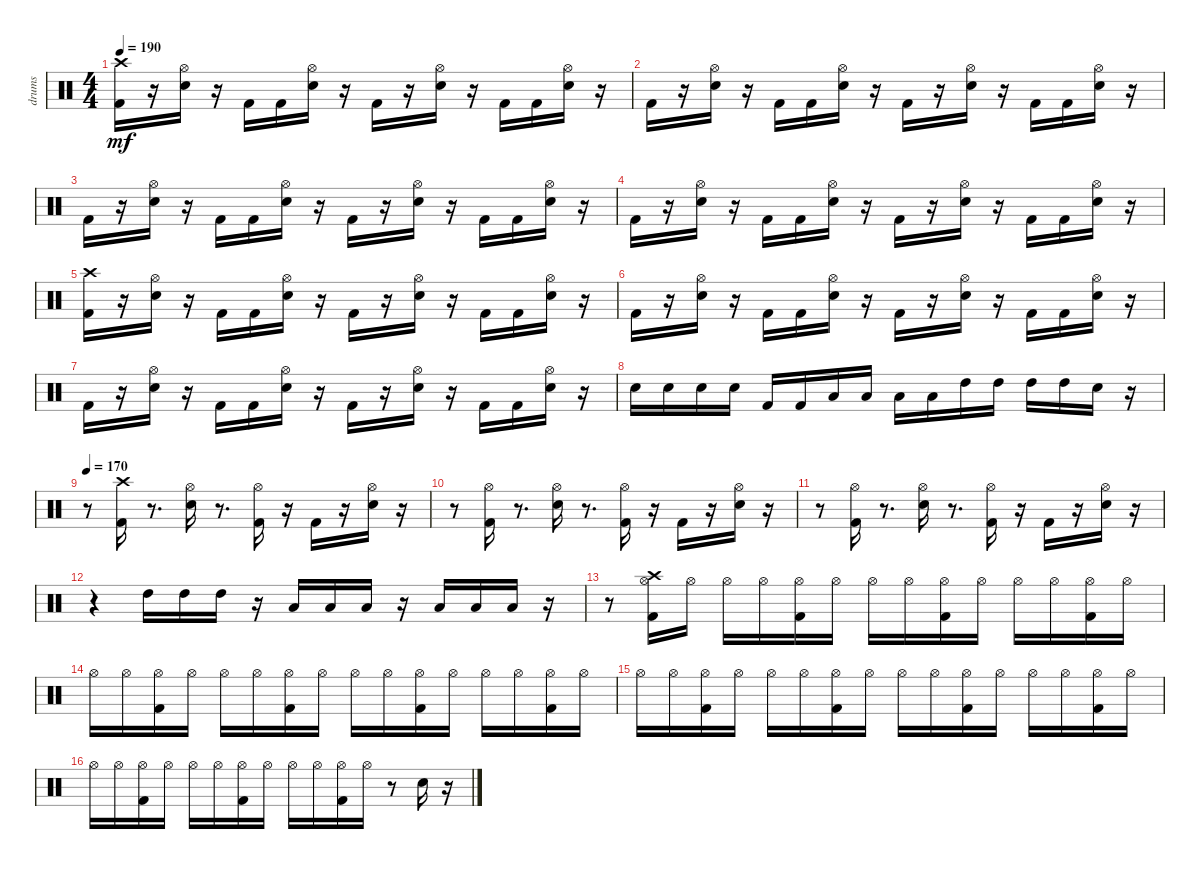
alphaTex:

\track ("drums               " "drums     ") {instrument percussion}
\staff {score}
\articulation defaults
\ts (4 4)
\tempo 190
\clef neutral
\ks c
("Kick (hit) 2" "Crash high (hit)").16{dy mf} r.16 ("Snare (hit) 2" "Hi-Hat (open)").16 r.16 "Kick (hit) 2".16 "Kick (hit) 2".16 ("Snare (hit) 2" "Hi-Hat (open)").16 r.16 "Kick (hit) 2".16 r.16 ("Snare (hit) 2" "Hi-Hat (open)").16 r.16 "Kick (hit) 2".16 "Kick (hit) 2".16 ("Snare (hit) 2" "Hi-Hat (open)").16 r.16 |
"Kick (hit) 2".16 r.16 ("Snare (hit) 2" "Hi-Hat (open)").16 r.16 "Kick (hit) 2".16 "Kick (hit) 2".16 ("Snare (hit) 2" "Hi-Hat (open)").16 r.16 "Kick (hit) 2".16 r.16 ("Snare (hit) 2" "Hi-Hat (open)").16 r.16 "Kick (hit) 2".16 "Kick (hit) 2".16 ("Snare (hit) 2" "Hi-Hat (open)").16 r.16 |
"Kick (hit) 2".16 r.16 ("Snare (hit) 2" "Hi-Hat (open)").16 r.16 "Kick (hit) 2".16 "Kick (hit) 2".16 ("Snare (hit) 2" "Hi-Hat (open)").16 r.16 "Kick (hit) 2".16 r.16 ("Snare (hit) 2" "Hi-Hat (open)").16 r.16 "Kick (hit) 2".16 "Kick (hit) 2".16 ("Snare (hit) 2" "Hi-Hat (open)").16 r.16 |
"Kick (hit) 2".16 r.16 ("Snare (hit) 2" "Hi-Hat (open)").16 r.16 "Kick (hit) 2".16 "Kick (hit) 2".16 ("Snare (hit) 2" "Hi-Hat (open)").16 r.16 "Kick (hit) 2".16 r.16 ("Snare (hit) 2" "Hi-Hat (open)").16 r.16 "Kick (hit) 2".16 "Kick (hit) 2".16 ("Snare (hit) 2" "Hi-Hat (open)").16 r.16 |
("Kick (hit) 2" "Crash high (hit)").16 r.16 ("Snare (hit) 2" "Hi-Hat (open)").16 r.16 "Kick (hit) 2".16 "Kick (hit) 2".16 ("Snare (hit) 2" "Hi-Hat (open)").16 r.16 "Kick (hit) 2".16 r.16 ("Snare (hit) 2" "Hi-Hat (open)").16 r.16 "Kick (hit) 2".16 "Kick (hit) 2".16 ("Snare (hit) 2" "Hi-Hat (open)").16 r.16 |
"Kick (hit) 2".16 r.16 ("Snare (hit) 2" "Hi-Hat (open)").16 r.16 "Kick (hit) 2".16 "Kick (hit) 2".16 ("Snare (hit) 2" "Hi-Hat (open)").16 r.16 "Kick (hit) 2".16 r.16 ("Snare (hit) 2" "Hi-Hat (open)").16 r.16 "Kick (hit) 2".16 "Kick (hit) 2".16 ("Snare (hit) 2" "Hi-Hat (open)").16 r.16 |
"Kick (hit) 2".16 r.16 ("Snare (hit) 2" "Hi-Hat (open)").16 r.16 "Kick (hit) 2".16 "Kick (hit) 2".16 ("Snare (hit) 2" "Hi-Hat (open)").16 r.16 "Kick (hit) 2".16 r.16 ("Snare (hit) 2" "Hi-Hat (open)").16 r.16 "Kick (hit) 2".16 "Kick (hit) 2".16 ("Snare (hit) 2" "Hi-Hat (open)").16 r.16 |
"Snare (hit) 2".16 "Snare (hit) 2".16 "Snare (hit) 2".16 "Snare (hit) 2".16 "Kick (hit) 2".16 "Kick (hit) 2".16 "Low Floor Tom (hit)".16 "Low Floor Tom (hit)".16 "Low Tom (hit)".16 "Low Tom (hit)".16 "High Tom (hit)".16 "High Tom (hit)".16 "High Tom (hit)".16 "High Tom (hit)".16 "Snare (hit) 2".16 r.16 |
\tempo 170
r.8 ("Crash high (hit)" "Kick (hit) 2").16 r.8{d} ("Hi-Hat (open)" "Snare (hit) 2").16 r.8{d} ("Hi-Hat (open)" "Kick (hit) 2").16 r.16 "Kick (hit) 2".16 r.16 ("Hi-Hat (open)" "Snare (hit) 2").16 r.16 |
r.8 ("Kick (hit) 2" "Hi-Hat (open)").16 r.8{d} ("Hi-Hat (open)" "Snare (hit) 2").16 r.8{d} ("Hi-Hat (open)" "Kick (hit) 2").16 r.16 "Kick (hit) 2".16 r.16 ("Hi-Hat (open)" "Snare (hit) 2").16 r.16 |
r.8 ("Kick (hit) 2" "Hi-Hat (open)").16 r.8{d} ("Hi-Hat (open)" "Snare (hit) 2").16 r.8{d} ("Hi-Hat (open)" "Kick (hit) 2").16 r.16 "Kick (hit) 2".16 r.16 ("Hi-Hat (open)" "Snare (hit) 2").16 r.16 |
r.4 "High Tom (hit)".16 "High Tom (hit)".16 "High Tom (hit)".16 r.16 "Low Tom (hit)".16 "Low Tom (hit)".16 "Low Tom (hit)".16 r.16 "Low Floor Tom (hit)".16 "Low Floor Tom (hit)".16 "Low Floor Tom (hit)".16 r.16 |
r.8 ("Kick (hit) 2" "Crash high (hit)" "Hi-Hat (open)").16 "Hi-Hat (open)".16 "Hi-Hat (open)".16 "Hi-Hat (open)".16 ("Hi-Hat (open)" "Kick (hit) 2").16 "Hi-Hat (open)".16 "Hi-Hat (open)".16 "Hi-Hat (open)".16 ("Hi-Hat (open)" "Kick (hit) 2").16 "Hi-Hat (open)".16 "Hi-Hat (open)".16 "Hi-Hat (open)".16 ("Hi-Hat (open)" "Kick (hit) 2").16 "Hi-Hat (open)".16 |
"Hi-Hat (open)".16 "Hi-Hat (open)".16 ("Hi-Hat (open)" "Kick (hit) 2").16 "Hi-Hat (open)".16 "Hi-Hat (open)".16 "Hi-Hat (open)".16 ("Hi-Hat (open)" "Kick (hit) 2").16 "Hi-Hat (open)".16 "Hi-Hat (open)".16 "Hi-Hat (open)".16 ("Hi-Hat (open)" "Kick (hit) 2").16 "Hi-Hat (open)".16 "Hi-Hat (open)".16 "Hi-Hat (open)".16 ("Hi-Hat (open)" "Kick (hit) 2").16 "Hi-Hat (open)".16 |
"Hi-Hat (open)".16 "Hi-Hat (open)".16 ("Hi-Hat (open)" "Kick (hit) 2").16 "Hi-Hat (open)".16 "Hi-Hat (open)".16 "Hi-Hat (open)".16 ("Hi-Hat (open)" "Kick (hit) 2").16 "Hi-Hat (open)".16 "Hi-Hat (open)".16 "Hi-Hat (open)".16 ("Hi-Hat (open)" "Kick (hit) 2").16 "Hi-Hat (open)".16 "Hi-Hat (open)".16 "Hi-Hat (open)".16 ("Hi-Hat (open)" "Kick (hit) 2").16 "Hi-Hat (open)".16 |
"Hi-Hat (open)".16 "Hi-Hat (open)".16 ("Hi-Hat (open)" "Kick (hit) 2").16 "Hi-Hat (open)".16 "Hi-Hat (open)".16 "Hi-Hat (open)".16 ("Hi-Hat (open)" "Kick (hit) 2").16 "Hi-Hat (open)".16 "Hi-Hat (open)".16 "Hi-Hat (open)".16 ("Hi-Hat (open)" "Kick (hit) 2").16 "Hi-Hat (open)".16 r.8 "Snare (hit) 2".16 r.16
